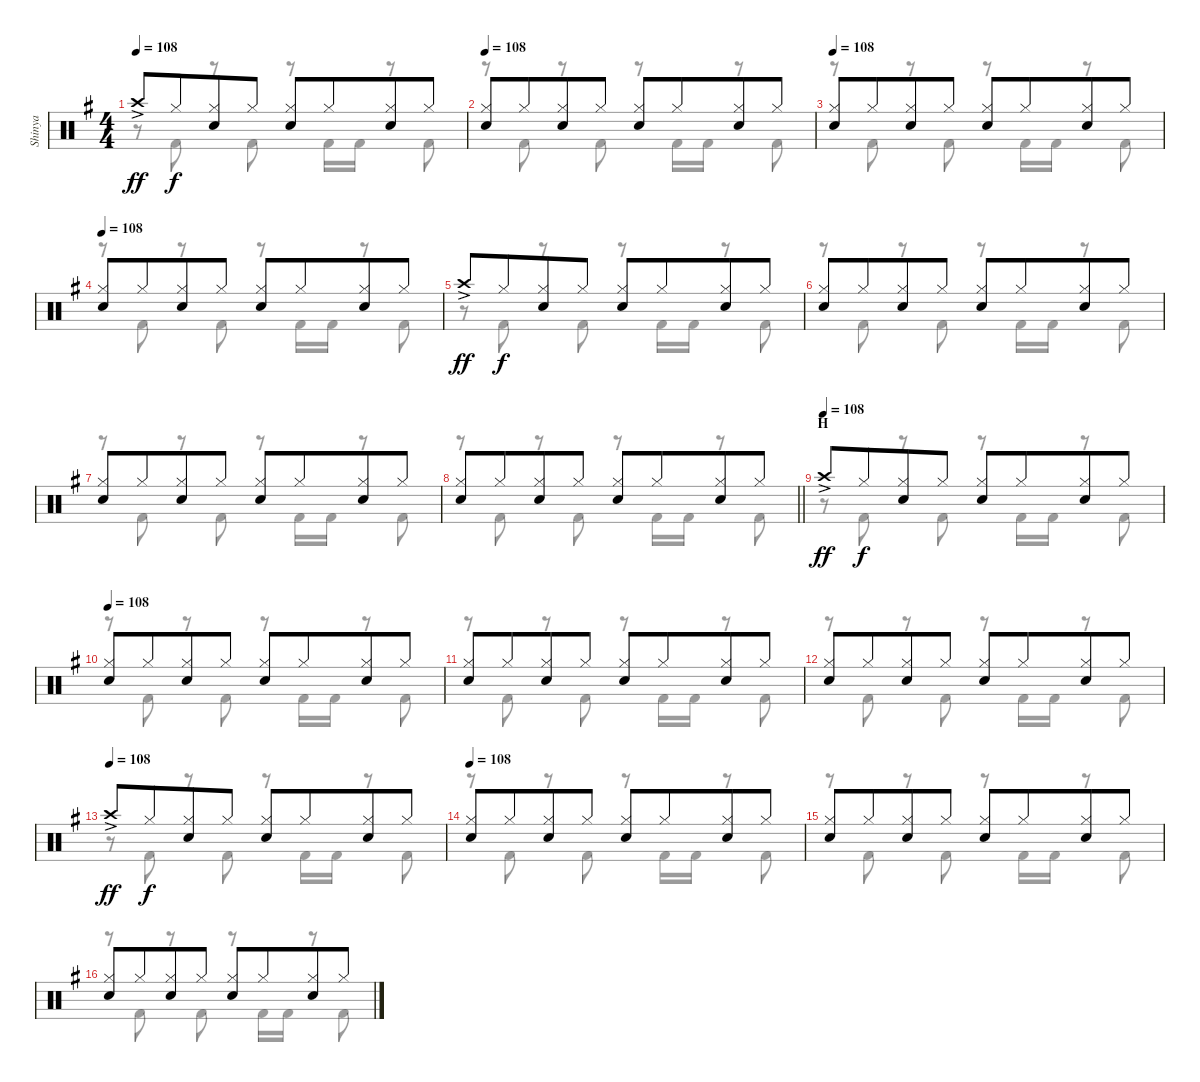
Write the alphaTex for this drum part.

\track ("Shinya" "Shinya") {instrument percussion}
\staff {score}
\articulation defaults
\voice
\ts (4 4)
\tempo 108
\clef neutral
\ks eminor "Crash high (hit)"{ac}.8{dy ff} "Hi-Hat (closed)".8{dy f beam merge}
("Hi-Hat (closed)" "Snare (hit) 2").8 "Hi-Hat (closed)".8 ("Hi-Hat (closed)" "Snare (hit) 2").8 "Hi-Hat (closed)".8{beam merge} ("Hi-Hat (closed)" "Snare (hit) 2").8 "Hi-Hat (closed)".8 |
\tempo 108
("Hi-Hat (closed)" "Snare (hit) 2").8 "Hi-Hat (closed)".8{beam merge} ("Hi-Hat (closed)" "Snare (hit) 2").8 "Hi-Hat (closed)".8 ("Hi-Hat (closed)" "Snare (hit) 2").8 "Hi-Hat (closed)".8{beam merge} ("Hi-Hat (closed)" "Snare (hit) 2").8 "Hi-Hat (closed)".8 |
\tempo 108
("Hi-Hat (closed)" "Snare (hit) 2").8 "Hi-Hat (closed)".8{beam merge} ("Hi-Hat (closed)" "Snare (hit) 2").8 "Hi-Hat (closed)".8 ("Hi-Hat (closed)" "Snare (hit) 2").8 "Hi-Hat (closed)".8{beam merge} ("Hi-Hat (closed)" "Snare (hit) 2").8 "Hi-Hat (closed)".8 |
\tempo 108
("Hi-Hat (closed)" "Snare (hit) 2").8 "Hi-Hat (closed)".8{beam merge} ("Hi-Hat (closed)" "Snare (hit) 2").8 "Hi-Hat (closed)".8 ("Hi-Hat (closed)" "Snare (hit) 2").8 "Hi-Hat (closed)".8{beam merge} ("Hi-Hat (closed)" "Snare (hit) 2").8 "Hi-Hat (closed)".8 |
"Crash high (hit)"{ac}.8{dy ff} "Hi-Hat (closed)".8{dy f beam merge} ("Hi-Hat (closed)" "Snare (hit) 2").8 "Hi-Hat (closed)".8 ("Hi-Hat (closed)" "Snare (hit) 2").8 "Hi-Hat (closed)".8{beam merge} ("Hi-Hat (closed)" "Snare (hit) 2").8 "Hi-Hat (closed)".8 |
("Hi-Hat (closed)" "Snare (hit) 2").8 "Hi-Hat (closed)".8{beam merge} ("Hi-Hat (closed)" "Snare (hit) 2").8 "Hi-Hat (closed)".8 ("Hi-Hat (closed)" "Snare (hit) 2").8 "Hi-Hat (closed)".8{beam merge} ("Hi-Hat (closed)" "Snare (hit) 2").8 "Hi-Hat (closed)".8 |
("Hi-Hat (closed)" "Snare (hit) 2").8 "Hi-Hat (closed)".8{beam merge} ("Hi-Hat (closed)" "Snare (hit) 2").8 "Hi-Hat (closed)".8 ("Hi-Hat (closed)" "Snare (hit) 2").8 "Hi-Hat (closed)".8{beam merge} ("Hi-Hat (closed)" "Snare (hit) 2").8 "Hi-Hat (closed)".8 |
\barLineRight lightlight
("Hi-Hat (closed)" "Snare (hit) 2").8 "Hi-Hat (closed)".8{beam merge} ("Hi-Hat (closed)" "Snare (hit) 2").8 "Hi-Hat (closed)".8 ("Hi-Hat (closed)" "Snare (hit) 2").8 "Hi-Hat (closed)".8{beam merge} ("Hi-Hat (closed)" "Snare (hit) 2").8 "Hi-Hat (closed)".8 |
\section ("" "H")
\tempo (108)
"Crash high (hit)"{ac}.8{dy ff} "Hi-Hat (closed)".8{dy f beam merge} ("Hi-Hat (closed)" "Snare (hit) 2").8 "Hi-Hat (closed)".8 ("Hi-Hat (closed)" "Snare (hit) 2").8 "Hi-Hat (closed)".8{beam merge} ("Hi-Hat (closed)" "Snare (hit) 2").8 "Hi-Hat (closed)".8 |
\tempo 108
("Hi-Hat (closed)" "Snare (hit) 2").8 "Hi-Hat (closed)".8{beam merge} ("Hi-Hat (closed)" "Snare (hit) 2").8 "Hi-Hat (closed)".8 ("Hi-Hat (closed)" "Snare (hit) 2").8 "Hi-Hat (closed)".8{beam merge} ("Hi-Hat (closed)" "Snare (hit) 2").8 "Hi-Hat (closed)".8 |
("Hi-Hat (closed)" "Snare (hit) 2").8 "Hi-Hat (closed)".8{beam merge} ("Hi-Hat (closed)" "Snare (hit) 2").8 "Hi-Hat (closed)".8 ("Hi-Hat (closed)" "Snare (hit) 2").8 "Hi-Hat (closed)".8{beam merge} ("Hi-Hat (closed)" "Snare (hit) 2").8 "Hi-Hat (closed)".8 |
("Hi-Hat (closed)" "Snare (hit) 2").8 "Hi-Hat (closed)".8{beam merge} ("Hi-Hat (closed)" "Snare (hit) 2").8 "Hi-Hat (closed)".8 ("Hi-Hat (closed)" "Snare (hit) 2").8 "Hi-Hat (closed)".8{beam merge} ("Hi-Hat (closed)" "Snare (hit) 2").8 "Hi-Hat (closed)".8 |
\tempo (108)
"Crash high (hit)"{ac}.8{dy ff} "Hi-Hat (closed)".8{dy f beam merge} ("Hi-Hat (closed)" "Snare (hit) 2").8 "Hi-Hat (closed)".8 ("Hi-Hat (closed)" "Snare (hit) 2").8 "Hi-Hat (closed)".8{beam merge} ("Hi-Hat (closed)" "Snare (hit) 2").8 "Hi-Hat (closed)".8 |
\tempo 108
("Hi-Hat (closed)" "Snare (hit) 2").8 "Hi-Hat (closed)".8{beam merge} ("Hi-Hat (closed)" "Snare (hit) 2").8 "Hi-Hat (closed)".8 ("Hi-Hat (closed)" "Snare (hit) 2").8 "Hi-Hat (closed)".8{beam merge} ("Hi-Hat (closed)" "Snare (hit) 2").8 "Hi-Hat (closed)".8 |
("Hi-Hat (closed)" "Snare (hit) 2").8 "Hi-Hat (closed)".8{beam merge} ("Hi-Hat (closed)" "Snare (hit) 2").8 "Hi-Hat (closed)".8 ("Hi-Hat (closed)" "Snare (hit) 2").8 "Hi-Hat (closed)".8{beam merge} ("Hi-Hat (closed)" "Snare (hit) 2").8 "Hi-Hat (closed)".8 |
("Hi-Hat (closed)" "Snare (hit) 2").8 "Hi-Hat (closed)".8{beam merge} ("Hi-Hat (closed)" "Snare (hit) 2").8 "Hi-Hat (closed)".8 ("Hi-Hat (closed)" "Snare (hit) 2").8 "Hi-Hat (closed)".8{beam merge} ("Hi-Hat (closed)" "Snare (hit) 2").8 "Hi-Hat (closed)".8
\voice
\clef neutral
\ottava regular
\simile none
\ks eminor
r.8{dy f} "Kick (hit) 2".8 r.8 "Kick (hit) 2".8 r.8 "Kick (hit) 2".16 "Kick (hit) 2".16 r.8 "Kick (hit) 2".8 |
r.8 "Kick (hit) 2".8 r.8 "Kick (hit) 2".8 r.8 "Kick (hit) 2".16 "Kick (hit) 2".16 r.8 "Kick (hit) 2".8 |
r.8 "Kick (hit) 2".8 r.8 "Kick (hit) 2".8 r.8 "Kick (hit) 2".16 "Kick (hit) 2".16 r.8 "Kick (hit) 2".8 |
r.8 "Kick (hit) 2".8 r.8 "Kick (hit) 2".8 r.8 "Kick (hit) 2".16 "Kick (hit) 2".16 r.8 "Kick (hit) 2".8 |
r.8 "Kick (hit) 2".8 r.8 "Kick (hit) 2".8 r.8 "Kick (hit) 2".16 "Kick (hit) 2".16 r.8 "Kick (hit) 2".8 |
r.8 "Kick (hit) 2".8 r.8 "Kick (hit) 2".8 r.8 "Kick (hit) 2".16 "Kick (hit) 2".16 r.8 "Kick (hit) 2".8 |
r.8 "Kick (hit) 2".8 r.8 "Kick (hit) 2".8 r.8 "Kick (hit) 2".16 "Kick (hit) 2".16 r.8 "Kick (hit) 2".8 |
\barLineRight lightlight
r.8 "Kick (hit) 2".8 r.8 "Kick (hit) 2".8 r.8 "Kick (hit) 2".16 "Kick (hit) 2".16 r.8 "Kick (hit) 2".8 |
r.8 "Kick (hit) 2".8 r.8 "Kick (hit) 2".8 r.8 "Kick (hit) 2".16 "Kick (hit) 2".16 r.8 "Kick (hit) 2".8 |
r.8 "Kick (hit) 2".8 r.8 "Kick (hit) 2".8 r.8 "Kick (hit) 2".16 "Kick (hit) 2".16 r.8 "Kick (hit) 2".8 |
r.8 "Kick (hit) 2".8 r.8 "Kick (hit) 2".8 r.8 "Kick (hit) 2".16 "Kick (hit) 2".16 r.8 "Kick (hit) 2".8 |
r.8 "Kick (hit) 2".8 r.8 "Kick (hit) 2".8 r.8 "Kick (hit) 2".16 "Kick (hit) 2".16 r.8 "Kick (hit) 2".8 |
r.8 "Kick (hit) 2".8 r.8 "Kick (hit) 2".8 r.8 "Kick (hit) 2".16 "Kick (hit) 2".16 r.8 "Kick (hit) 2".8 |
r.8 "Kick (hit) 2".8 r.8 "Kick (hit) 2".8 r.8 "Kick (hit) 2".16 "Kick (hit) 2".16 r.8 "Kick (hit) 2".8 |
r.8 "Kick (hit) 2".8 r.8 "Kick (hit) 2".8 r.8 "Kick (hit) 2".16 "Kick (hit) 2".16 r.8 "Kick (hit) 2".8 |
r.8 "Kick (hit) 2".8 r.8 "Kick (hit) 2".8 r.8 "Kick (hit) 2".16 "Kick (hit) 2".16 r.8 "Kick (hit) 2".8
